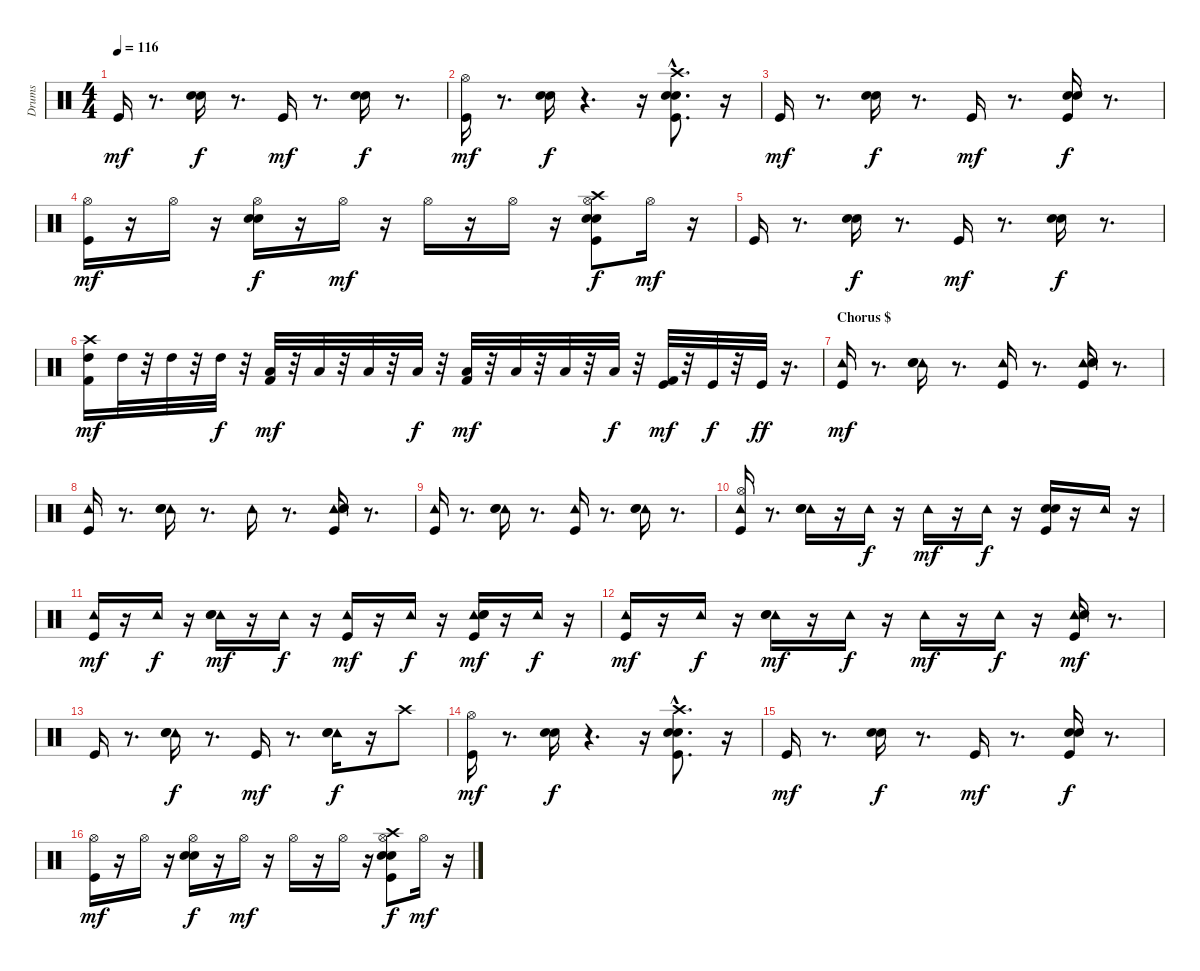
\track ("Drums" "Drums") {instrument percussion}
\staff {score}
\articulation defaults
\ts (4 4)
\tempo 116
\clef neutral
\ks c "Kick (hit)".16{dy mf}
r.8{d} ("Electric Snare (hit)" "Snare (hit) 2").16{dy f} r.8{d} "Kick (hit)".16{dy mf} r.8{d} ("Electric Snare (hit)" "Snare (hit) 2").16{dy f} r.8{d} |
("Hi-Hat (open)" "Kick (hit)").16{dy mf} r.8{d} ("Electric Snare (hit)" "Snare (hit) 2").16{dy f} r.4{d} r.16 ("Crash high (hit)"{hac} "Electric Snare (hit)" "Snare (hit) 2" "Kick (hit)").8{d} r.16 |
"Kick (hit)".16{dy mf} r.8{d} ("Electric Snare (hit)" "Snare (hit) 2").16{dy f} r.8{d} "Kick (hit)".16{dy mf} r.8{d} ("Electric Snare (hit)" "Snare (hit) 2" "Kick (hit)").16{dy f} r.8{d} |
("Hi-Hat (open)" "Kick (hit)").16{dy mf} r.16 "Hi-Hat (open)".16 r.16 ("Hi-Hat (open)" "Electric Snare (hit)" "Snare (hit) 2").16{dy f} r.16 "Hi-Hat (open)".16{dy mf} r.16 "Hi-Hat (open)".16 r.16 "Hi-Hat (open)".16 r.16 ("Hi-Hat (open)" "Crash high (hit)" "Electric Snare (hit)" "Snare (hit) 2" "Kick (hit)").8{dy f} "Hi-Hat (open)".16{dy mf} r.16 |
"Kick (hit)".16 r.8{d} ("Electric Snare (hit)" "Snare (hit) 2").16{dy f} r.8{d} "Kick (hit)".16{dy mf} r.8{d} ("Electric Snare (hit)" "Snare (hit) 2").16{dy f} r.8{d} |
("High Tom (hit)" "Kick (hit) 2" "Crash high (hit)").16{dy mf} "High Tom (hit)".32 r.32 "High Tom (hit)".32 r.32 "High Tom (hit)".32{dy f} r.32 ("Low Tom (hit)" "Kick (hit) 2").32{dy mf} r.32 "Low Tom (hit)".32 r.32 "Low Tom (hit)".32 r.32 "Low Tom (hit)".32{dy f} r.32 ("Low Floor Tom (hit)" "Kick (hit) 2").32{dy mf} r.32 "Low Floor Tom (hit)".32 r.32 "Low Floor Tom (hit)".32 r.32 "Low Floor Tom (hit)".32{dy f} r.32 ("Kick (hit)" "Kick (hit) 2").32{dy mf} r.32 "Kick (hit)".32{dy f} r.32 "Kick (hit)".32{dy ff} r.16{d} |
\section ("" "Chorus $")
("Tambourine (hit)" "Kick (hit)").16{dy mf} r.8{d} ("Tambourine (hit)" "Electric Snare (hit)" "Snare (hit) 2").16 r.8{d} ("Tambourine (hit)" "Kick (hit)").16 r.8{d} ("Tambourine (hit)" "Electric Snare (hit)" "Snare (hit) 2" "Kick (hit)").16 r.8{d} |
("Tambourine (hit)" "Kick (hit)").16 r.8{d} ("Tambourine (hit)" "Electric Snare (hit)" "Snare (hit) 2").16 r.8{d} "Tambourine (hit)".16 r.8{d} ("Tambourine (hit)" "Electric Snare (hit)" "Snare (hit) 2" "Kick (hit)").16 r.8{d} |
("Tambourine (hit)" "Kick (hit)").16 r.8{d} ("Tambourine (hit)" "Electric Snare (hit)" "Snare (hit) 2").16 r.8{d} ("Tambourine (hit)" "Kick (hit)").16 r.8{d} ("Tambourine (hit)" "Electric Snare (hit)" "Snare (hit) 2").16 r.8{d} |
("Tambourine (hit)" "Hi-Hat (open)" "Kick (hit)").16 r.8{d} ("Tambourine (hit)" "Electric Snare (hit)" "Snare (hit) 2").16 r.16 "Tambourine (hit)".16{dy f} r.16 "Tambourine (hit)".16{dy mf} r.16 "Tambourine (hit)".16{dy f} r.16 ("Electric Snare (hit)" "Snare (hit) 2" "Kick (hit)").16 r.16 "Tambourine (hit)".16 r.16 |
("Tambourine (hit)" "Kick (hit)").16{dy mf} r.16 "Tambourine (hit)".16{dy f} r.16 ("Tambourine (hit)" "Electric Snare (hit)" "Snare (hit) 2").16{dy mf} r.16 "Tambourine (hit)".16{dy f} r.16 ("Tambourine (hit)" "Kick (hit)").16{dy mf} r.16 "Tambourine (hit)".16{dy f} r.16 ("Tambourine (hit)" "Electric Snare (hit)" "Snare (hit) 2" "Kick (hit)").16{dy mf} r.16 "Tambourine (hit)".16{dy f} r.16 |
("Tambourine (hit)" "Kick (hit)").16{dy mf} r.16 "Tambourine (hit)".16{dy f} r.16 ("Tambourine (hit)" "Electric Snare (hit)" "Snare (hit) 2").16{dy mf} r.16 "Tambourine (hit)".16{dy f} r.16 "Tambourine (hit)".16{dy mf} r.16 "Tambourine (hit)".16{dy f} r.16 ("Tambourine (hit)" "Electric Snare (hit)" "Snare (hit) 2" "Kick (hit)").16{dy mf} r.8{d} |
"Kick (hit)".16 r.8{d} ("Tambourine (hit)" "Electric Snare (hit)" "Snare (hit) 2").16{dy f} r.8{d} "Kick (hit)".16{dy mf} r.8{d} ("Tambourine (hit)" "Electric Snare (hit)" "Snare (hit) 2").16{dy f} r.16 "Crash high (hit)".8 |
("Hi-Hat (open)" "Kick (hit)").16{dy mf} r.8{d} ("Electric Snare (hit)" "Snare (hit) 2").16{dy f} r.4{d} r.16 ("Crash high (hit)"{hac} "Electric Snare (hit)" "Snare (hit) 2" "Kick (hit)").8{d} r.16 |
"Kick (hit)".16{dy mf} r.8{d} ("Electric Snare (hit)" "Snare (hit) 2").16{dy f} r.8{d} "Kick (hit)".16{dy mf} r.8{d} ("Electric Snare (hit)" "Snare (hit) 2" "Kick (hit)").16{dy f} r.8{d} |
("Hi-Hat (open)" "Kick (hit)").16{dy mf} r.16 "Hi-Hat (open)".16 r.16 ("Hi-Hat (open)" "Electric Snare (hit)" "Snare (hit) 2").16{dy f} r.16 "Hi-Hat (open)".16{dy mf} r.16 "Hi-Hat (open)".16 r.16 "Hi-Hat (open)".16 r.16 ("Hi-Hat (open)" "Crash high (hit)" "Electric Snare (hit)" "Snare (hit) 2" "Kick (hit)").8{dy f} "Hi-Hat (open)".16{dy mf} r.16
